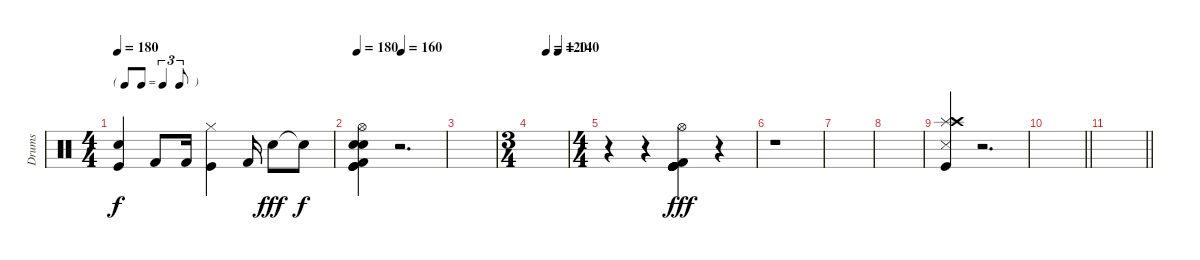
\track ("Drums" "Drums") {instrument percussion}
\staff {score}
\articulation defaults
\ts (4 4)
\tf triplet8th
\tempo 180
\clef neutral
\ks c
("Snare (hit)" "Kick (hit)").4{dy f} "Kick (hit) 2".8 "Kick (hit) 2".16 ("Kick (hit)" "Hi-Hat (closed)").4 "Kick (hit) 2".16 "Electric Snare (hit)".8{dy fff} "Snare (hit)"{t}.8{dy f} |
\tempo 180
\tempo (160 0.5)
("Kick (hit) 2" "Kick (hit)" "Kick (hit)" "Hi-Hat (open)" "Snare (hit)" "Electric Snare (hit)").4 r.2{d} |
|
\ts (3 4)
\tempo (120 0.4166666666666667)
\tempo (140 0.75)
|
\ts (4 4)
r.4 r.4 ("Kick (hit) 2" "Kick (hit)" "Kick (hit)" "Hi-Hat (open)" "Kick (hit)" "Kick (hit)").4{dy fff} r.4 |
r.1 |
|
|
("Splash (hit)" "Crash high (hit)" "Metronome (hit)" "Kick (hit)").4 r.2{d} |
\barLineRight lightlight
|
\barLineRight lightlight
